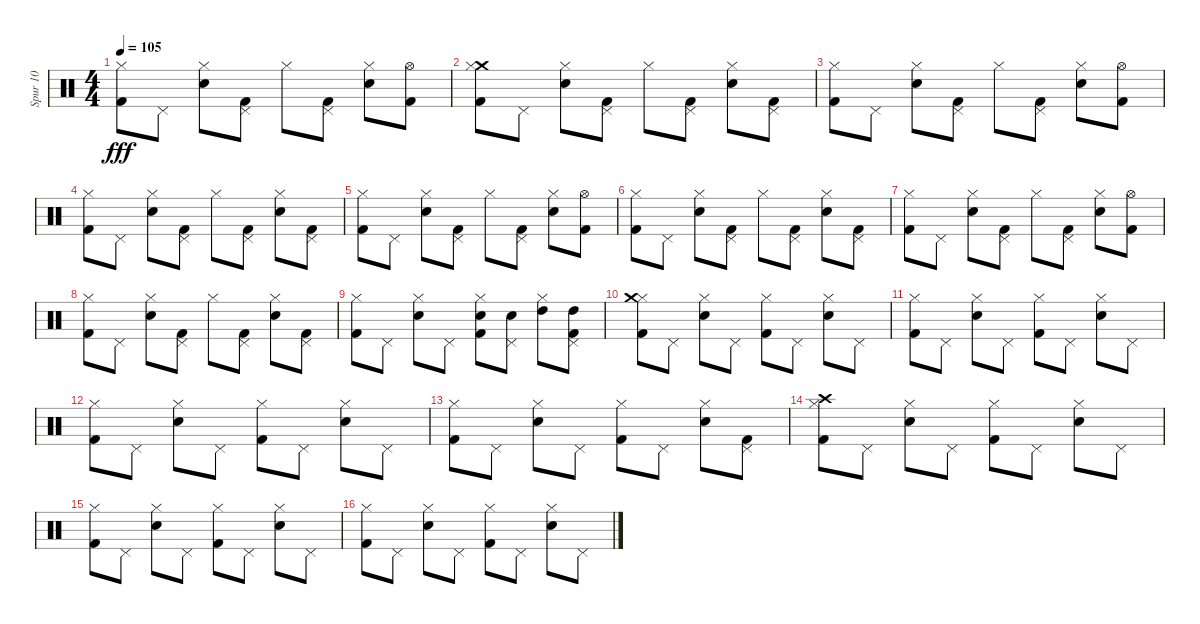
\track ("Spur 10" "Spur 10") {instrument percussion}
\staff {score}
\articulation defaults
\ts (4 4)
\tempo 105
\clef neutral
\ks c
("Hi-Hat (closed)" "Kick (hit) 2").8{dy fff} "Pedal Hi-Hat (hit)".8 ("Electric Snare (hit)" "Hi-Hat (closed)").8 ("Pedal Hi-Hat (hit)" "Kick (hit) 2").8 "Hi-Hat (closed)".8 ("Pedal Hi-Hat (hit)" "Kick (hit) 2").8 ("Electric Snare (hit)" "Hi-Hat (closed)").8 ("Hi-Hat (open)" "Kick (hit) 2").8 |
("Crash medium (hit)" "Hi-Hat (closed)" "Kick (hit) 2").8 "Pedal Hi-Hat (hit)".8 ("Hi-Hat (closed)" "Electric Snare (hit)").8 ("Pedal Hi-Hat (hit)" "Kick (hit) 2").8 "Hi-Hat (closed)".8 ("Pedal Hi-Hat (hit)" "Kick (hit) 2").8 ("Electric Snare (hit)" "Hi-Hat (closed)").8 ("Pedal Hi-Hat (hit)" "Kick (hit) 2").8 |
("Kick (hit) 2" "Hi-Hat (closed)").8 "Pedal Hi-Hat (hit)".8 ("Electric Snare (hit)" "Hi-Hat (closed)").8 ("Kick (hit) 2" "Pedal Hi-Hat (hit)").8 "Hi-Hat (closed)".8 ("Pedal Hi-Hat (hit)" "Kick (hit) 2").8 ("Electric Snare (hit)" "Hi-Hat (closed)").8 ("Kick (hit) 2" "Hi-Hat (open)").8 |
("Hi-Hat (closed)" "Kick (hit) 2").8 "Pedal Hi-Hat (hit)".8 ("Hi-Hat (closed)" "Electric Snare (hit)").8 ("Pedal Hi-Hat (hit)" "Kick (hit) 2").8 "Hi-Hat (closed)".8 ("Pedal Hi-Hat (hit)" "Kick (hit) 2").8 ("Hi-Hat (closed)" "Electric Snare (hit)").8 ("Kick (hit) 2" "Pedal Hi-Hat (hit)").8 |
("Hi-Hat (closed)" "Kick (hit) 2").8 "Pedal Hi-Hat (hit)".8 ("Electric Snare (hit)" "Hi-Hat (closed)").8 ("Kick (hit) 2" "Pedal Hi-Hat (hit)").8 "Hi-Hat (closed)".8 ("Kick (hit) 2" "Pedal Hi-Hat (hit)").8 ("Hi-Hat (closed)" "Electric Snare (hit)").8 ("Hi-Hat (open)" "Kick (hit) 2").8 |
("Kick (hit) 2" "Hi-Hat (closed)").8 "Pedal Hi-Hat (hit)".8 ("Electric Snare (hit)" "Hi-Hat (closed)").8 ("Pedal Hi-Hat (hit)" "Kick (hit) 2").8 "Hi-Hat (closed)".8 ("Pedal Hi-Hat (hit)" "Kick (hit) 2").8 ("Electric Snare (hit)" "Hi-Hat (closed)").8 ("Kick (hit) 2" "Pedal Hi-Hat (hit)").8 |
("Kick (hit) 2" "Hi-Hat (closed)").8 "Pedal Hi-Hat (hit)".8 ("Electric Snare (hit)" "Hi-Hat (closed)").8 ("Pedal Hi-Hat (hit)" "Kick (hit) 2").8 "Hi-Hat (closed)".8 ("Pedal Hi-Hat (hit)" "Kick (hit) 2").8 ("Hi-Hat (closed)" "Electric Snare (hit)").8 ("Hi-Hat (open)" "Kick (hit) 2").8 |
("Hi-Hat (closed)" "Kick (hit) 2").8 "Pedal Hi-Hat (hit)".8 ("Electric Snare (hit)" "Hi-Hat (closed)").8 ("Pedal Hi-Hat (hit)" "Kick (hit) 2").8 "Hi-Hat (closed)".8 ("Pedal Hi-Hat (hit)" "Kick (hit) 2").8 ("Hi-Hat (closed)" "Electric Snare (hit)").8 ("Pedal Hi-Hat (hit)" "Kick (hit) 2").8 |
("Kick (hit) 2" "Hi-Hat (closed)").8 "Pedal Hi-Hat (hit)".8 ("Electric Snare (hit)" "Hi-Hat (closed)").8 "Pedal Hi-Hat (hit)".8 ("Electric Snare (hit)" "Hi-Hat (closed)" "Kick (hit) 2").8 ("Electric Snare (hit)" "Pedal Hi-Hat (hit)").8 ("High Tom (hit)" "Hi-Hat (closed)").8 ("High Tom (hit)" "Pedal Hi-Hat (hit)" "Kick (hit) 2").8 |
("Hi-Hat (closed)" "Crash medium (hit)" "Kick (hit) 2").8 "Pedal Hi-Hat (hit)".8 ("Hi-Hat (closed)" "Electric Snare (hit)").8 "Pedal Hi-Hat (hit)".8 ("Hi-Hat (closed)" "Kick (hit) 2").8 "Pedal Hi-Hat (hit)".8 ("Electric Snare (hit)" "Hi-Hat (closed)").8 "Pedal Hi-Hat (hit)".8 |
("Kick (hit) 2" "Hi-Hat (closed)").8 "Pedal Hi-Hat (hit)".8 ("Electric Snare (hit)" "Hi-Hat (closed)").8 "Pedal Hi-Hat (hit)".8 ("Hi-Hat (closed)" "Kick (hit) 2").8 "Pedal Hi-Hat (hit)".8 ("Electric Snare (hit)" "Hi-Hat (closed)").8 "Pedal Hi-Hat (hit)".8 |
("Kick (hit) 2" "Hi-Hat (closed)").8 "Pedal Hi-Hat (hit)".8 ("Electric Snare (hit)" "Hi-Hat (closed)").8 "Pedal Hi-Hat (hit)".8 ("Kick (hit) 2" "Hi-Hat (closed)").8 "Pedal Hi-Hat (hit)".8 ("Electric Snare (hit)" "Hi-Hat (closed)").8 "Pedal Hi-Hat (hit)".8 |
("Kick (hit) 2" "Hi-Hat (closed)").8 "Pedal Hi-Hat (hit)".8 ("Electric Snare (hit)" "Hi-Hat (closed)").8 "Pedal Hi-Hat (hit)".8 ("Hi-Hat (closed)" "Kick (hit) 2").8 "Pedal Hi-Hat (hit)".8 ("Electric Snare (hit)" "Hi-Hat (closed)").8 ("Pedal Hi-Hat (hit)" "Kick (hit) 2").8 |
("Hi-Hat (closed)" "Crash high (hit)" "Kick (hit) 2").8 "Pedal Hi-Hat (hit)".8 ("Hi-Hat (closed)" "Electric Snare (hit)").8 "Pedal Hi-Hat (hit)".8 ("Hi-Hat (closed)" "Kick (hit) 2").8 "Pedal Hi-Hat (hit)".8 ("Electric Snare (hit)" "Hi-Hat (closed)").8 "Pedal Hi-Hat (hit)".8 |
("Kick (hit) 2" "Hi-Hat (closed)").8 "Pedal Hi-Hat (hit)".8 ("Electric Snare (hit)" "Hi-Hat (closed)").8 "Pedal Hi-Hat (hit)".8 ("Hi-Hat (closed)" "Kick (hit) 2").8 "Pedal Hi-Hat (hit)".8 ("Electric Snare (hit)" "Hi-Hat (closed)").8 "Pedal Hi-Hat (hit)".8 |
("Kick (hit) 2" "Hi-Hat (closed)").8 "Pedal Hi-Hat (hit)".8 ("Electric Snare (hit)" "Hi-Hat (closed)").8 "Pedal Hi-Hat (hit)".8 ("Kick (hit) 2" "Hi-Hat (closed)").8 "Pedal Hi-Hat (hit)".8 ("Electric Snare (hit)" "Hi-Hat (closed)").8 "Pedal Hi-Hat (hit)".8
